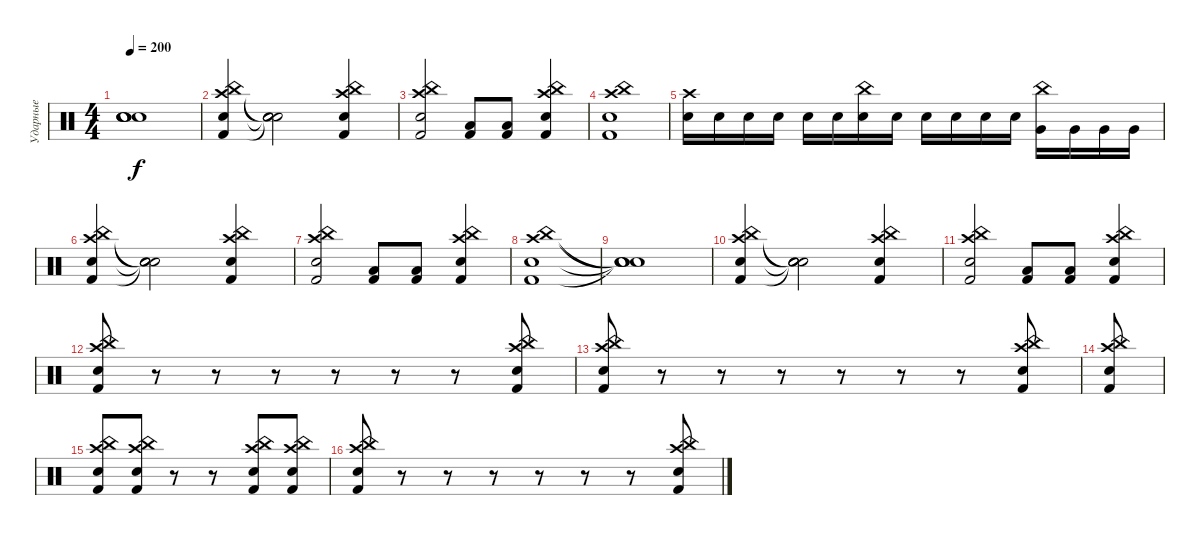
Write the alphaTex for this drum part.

\track ("Ударные" "Ударные") {instrument percussion}
\staff {score}
\articulation defaults
\ts (4 4)
\tempo 200
\clef neutral
\ks c
("Snare (hit)"{t} "Snare (hit)"{t} "Snare (hit)"{t} "Snare (hit)"{t}).1{dy f} |
("Electric Snare (hit)" "Crash high (hit)" "China (hit)" "Kick (hit) 2").4 ("Snare (hit)"{t} "Snare (hit)"{t} "Snare (hit)"{t} "Snare (hit)"{t}).2 ("Kick (hit) 2" "Electric Snare (hit)" "Crash high (hit)" "China (hit)").4 |
("Electric Snare (hit)" "Kick (hit) 2" "Crash high (hit)" "China (hit)").2 ("Kick (hit) 2" "Low Floor Tom (hit)").8 ("Low Floor Tom (hit)" "Kick (hit) 2").8 ("Kick (hit) 2" "Electric Snare (hit)" "Crash high (hit)" "China (hit)").4 |
("Electric Snare (hit)" "Kick (hit) 2" "Crash high (hit)" "China (hit)").1 |
("Electric Snare (hit)" "Crash high (hit)").16 "Electric Snare (hit)".16 "Electric Snare (hit)".16 "Electric Snare (hit)".16 "Electric Snare (hit)".16 "Electric Snare (hit)".16 ("Snare (hit) 2" "China (hit)").16 "Snare (hit) 2".16 "Snare (hit) 2".16 "Snare (hit) 2".16 "Snare (hit) 2".16 "Snare (hit) 2".16 ("Very Low Tom (hit)" "China (hit)").16 "Very Low Tom (hit)".16 "Very Low Tom (hit)".16 "Very Low Tom (hit)".16 |
("Electric Snare (hit)" "Crash high (hit)" "China (hit)" "Kick (hit) 2").4 ("Snare (hit)"{t} "Snare (hit)"{t} "Snare (hit)"{t} "Snare (hit)"{t}).2 ("Kick (hit) 2" "Electric Snare (hit)" "Crash high (hit)" "China (hit)").4 |
("Electric Snare (hit)" "Kick (hit) 2" "Crash high (hit)" "China (hit)").2 ("Kick (hit) 2" "Low Floor Tom (hit)").8 ("Low Floor Tom (hit)" "Kick (hit) 2").8 ("Kick (hit) 2" "Electric Snare (hit)" "Crash high (hit)" "China (hit)").4 |
("Electric Snare (hit)" "Kick (hit) 2" "Crash high (hit)" "China (hit)").1 |
("Snare (hit)"{t} "Snare (hit)"{t} "Snare (hit)"{t} "Snare (hit)"{t}).1 |
("Electric Snare (hit)" "Crash high (hit)" "China (hit)" "Kick (hit) 2").4 ("Snare (hit)"{t} "Snare (hit)"{t} "Snare (hit)"{t} "Snare (hit)"{t}).2 ("Kick (hit) 2" "Electric Snare (hit)" "Crash high (hit)" "China (hit)").4 |
("Electric Snare (hit)" "Kick (hit) 2" "Crash high (hit)" "China (hit)").2 ("Kick (hit) 2" "Low Floor Tom (hit)").8 ("Low Floor Tom (hit)" "Kick (hit) 2").8 ("Kick (hit) 2" "Electric Snare (hit)" "Crash high (hit)" "China (hit)").4 |
("Electric Snare (hit)" "Kick (hit) 2" "Crash high (hit)" "China (hit)").8 r.8 r.8 r.8 r.8 r.8 r.8 ("Kick (hit) 2" "Electric Snare (hit)" "Crash high (hit)" "China (hit)").8 |
("China (hit)" "Crash high (hit)" "Kick (hit) 2" "Electric Snare (hit)").8 r.8 r.8 r.8 r.8 r.8 r.8 ("Electric Snare (hit)" "Kick (hit) 2" "Crash high (hit)" "China (hit)").8 |
("Kick (hit) 2" "Electric Snare (hit)" "Crash high (hit)" "China (hit)").8 |
("Kick (hit) 2" "Crash high (hit)" "Electric Snare (hit)" "China (hit)").8 ("China (hit)" "Crash high (hit)" "Kick (hit) 2" "Electric Snare (hit)").8 r.8 r.8 ("Electric Snare (hit)" "Kick (hit) 2" "Crash high (hit)" "China (hit)").8 ("China (hit)" "Crash high (hit)" "Kick (hit) 2" "Electric Snare (hit)").8 |
("Electric Snare (hit)" "Kick (hit) 2" "Crash high (hit)" "China (hit)").8 r.8 r.8 r.8 r.8 r.8 r.8 ("Kick (hit) 2" "Electric Snare (hit)" "Crash high (hit)" "China (hit)").8
